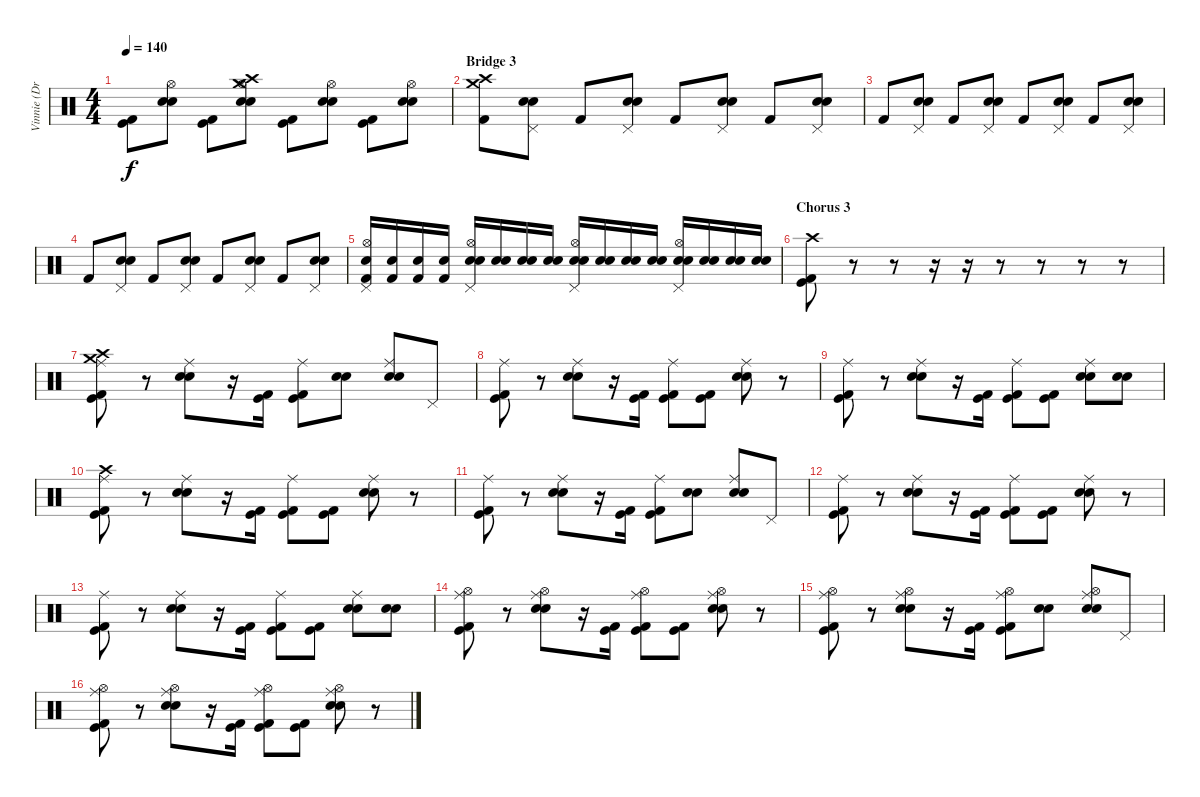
\track ("Vinnie (Drums)" "Vinnie (Dr") {instrument percussion}
\staff {score}
\articulation defaults
\ts (4 4)
\tempo 140
\clef neutral
\ks c
("Kick (hit) 2" "Kick (hit)").8{dy f} ("Snare (hit) 2" "Electric Snare (hit)" "Hi-Hat (open)").8 ("Kick (hit) 2" "Kick (hit)").8 ("Snare (hit) 2" "Electric Snare (hit)" "Hi-Hat (open)" "Crash medium (hit)" "Crash high (hit)").8 ("Kick (hit) 2" "Kick (hit)").8 ("Snare (hit) 2" "Electric Snare (hit)" "Hi-Hat (open)").8 ("Kick (hit) 2" "Kick (hit)").8 ("Snare (hit) 2" "Electric Snare (hit)" "Hi-Hat (open)").8 |
\section ("" "Bridge 3")
("Kick (hit) 2" "Crash medium (hit)" "Crash high (hit)").8 ("Snare (hit) 2" "Electric Snare (hit)" "Pedal Hi-Hat (hit)").8 "Kick (hit) 2".8 ("Snare (hit) 2" "Electric Snare (hit)" "Pedal Hi-Hat (hit)").8 "Kick (hit) 2".8 ("Snare (hit) 2" "Electric Snare (hit)" "Pedal Hi-Hat (hit)").8 "Kick (hit) 2".8 ("Snare (hit) 2" "Electric Snare (hit)" "Pedal Hi-Hat (hit)").8 |
"Kick (hit) 2".8 ("Snare (hit) 2" "Electric Snare (hit)" "Pedal Hi-Hat (hit)").8 "Kick (hit) 2".8 ("Snare (hit) 2" "Electric Snare (hit)" "Pedal Hi-Hat (hit)").8 "Kick (hit) 2".8 ("Snare (hit) 2" "Electric Snare (hit)" "Pedal Hi-Hat (hit)").8 "Kick (hit) 2".8 ("Snare (hit) 2" "Electric Snare (hit)" "Pedal Hi-Hat (hit)").8 |
"Kick (hit) 2".8 ("Snare (hit) 2" "Electric Snare (hit)" "Pedal Hi-Hat (hit)").8 "Kick (hit) 2".8 ("Snare (hit) 2" "Electric Snare (hit)" "Pedal Hi-Hat (hit)").8 "Kick (hit) 2".8 ("Snare (hit) 2" "Electric Snare (hit)" "Pedal Hi-Hat (hit)").8 "Kick (hit) 2".8 ("Snare (hit) 2" "Electric Snare (hit)" "Pedal Hi-Hat (hit)").8 |
("Kick (hit) 2" "Electric Snare (hit)" "Pedal Hi-Hat (hit)" "Hi-Hat (open)").16 ("Kick (hit) 2" "Electric Snare (hit)").16 ("Kick (hit) 2" "Electric Snare (hit)").16 ("Kick (hit) 2" "Electric Snare (hit)").16 ("Snare (hit) 2" "Electric Snare (hit)" "Pedal Hi-Hat (hit)" "Hi-Hat (open)").16 ("Snare (hit) 2" "Electric Snare (hit)").16 ("Snare (hit) 2" "Electric Snare (hit)").16 ("Snare (hit) 2" "Electric Snare (hit)").16 ("Snare (hit) 2" "Electric Snare (hit)" "Pedal Hi-Hat (hit)" "Hi-Hat (open)").16 ("Snare (hit) 2" "Electric Snare (hit)").16 ("Snare (hit) 2" "Electric Snare (hit)").16 ("Snare (hit) 2" "Electric Snare (hit)").16 ("Snare (hit) 2" "Electric Snare (hit)" "Pedal Hi-Hat (hit)" "Hi-Hat (open)").16 ("Snare (hit) 2" "Electric Snare (hit)").16 ("Snare (hit) 2" "Electric Snare (hit)").16 ("Snare (hit) 2" "Electric Snare (hit)").16 |
\section ("" "Chorus 3")
("Kick (hit) 2" "Kick (hit)" "Crash high (hit)").8 r.8 r.8 r.16 r.16 r.8 r.8 r.8 r.8 |
("Kick (hit) 2" "Kick (hit)" "Ride (middle)" "Crash medium (hit)" "Crash high (hit)").8 r.8 ("Snare (hit) 2" "Electric Snare (hit)" "Ride (middle)").8 r.16 ("Kick (hit) 2" "Kick (hit)").16 ("Kick (hit) 2" "Kick (hit)" "Ride (middle)").8 ("Snare (hit) 2" "Electric Snare (hit)").8 ("Snare (hit) 2" "Electric Snare (hit)" "Ride (middle)").8 "Pedal Hi-Hat (hit)".8 |
("Kick (hit) 2" "Kick (hit)" "Ride (middle)").8 r.8 ("Snare (hit) 2" "Electric Snare (hit)" "Ride (middle)").8 r.16 ("Kick (hit) 2" "Kick (hit)").16 ("Kick (hit) 2" "Kick (hit)" "Ride (middle)").8 ("Kick (hit) 2" "Kick (hit)").8 ("Snare (hit) 2" "Electric Snare (hit)" "Ride (middle)").8 r.8 |
("Kick (hit) 2" "Kick (hit)" "Ride (middle)").8 r.8 ("Snare (hit) 2" "Electric Snare (hit)" "Ride (middle)").8 r.16 ("Kick (hit) 2" "Kick (hit)").16 ("Kick (hit) 2" "Kick (hit)" "Ride (middle)").8 ("Kick (hit) 2" "Kick (hit)").8 ("Snare (hit) 2" "Electric Snare (hit)" "Ride (middle)").8 ("Snare (hit) 2" "Electric Snare (hit)").8 |
("Kick (hit) 2" "Kick (hit)" "Ride (middle)" "Crash high (hit)").8 r.8 ("Snare (hit) 2" "Electric Snare (hit)" "Ride (middle)").8 r.16 ("Kick (hit) 2" "Kick (hit)").16 ("Kick (hit) 2" "Kick (hit)" "Ride (middle)").8 ("Kick (hit) 2" "Kick (hit)").8 ("Snare (hit) 2" "Electric Snare (hit)" "Ride (middle)").8 r.8 |
("Kick (hit) 2" "Kick (hit)" "Ride (middle)").8 r.8 ("Snare (hit) 2" "Electric Snare (hit)" "Ride (middle)").8 r.16 ("Kick (hit) 2" "Kick (hit)").16 ("Kick (hit) 2" "Kick (hit)" "Ride (middle)").8 ("Snare (hit) 2" "Electric Snare (hit)").8 ("Snare (hit) 2" "Electric Snare (hit)" "Ride (middle)").8 "Pedal Hi-Hat (hit)".8 |
("Kick (hit) 2" "Kick (hit)" "Ride (middle)").8 r.8 ("Snare (hit) 2" "Electric Snare (hit)" "Ride (middle)").8 r.16 ("Kick (hit) 2" "Kick (hit)").16 ("Kick (hit) 2" "Kick (hit)" "Ride (middle)").8 ("Kick (hit) 2" "Kick (hit)").8 ("Snare (hit) 2" "Electric Snare (hit)" "Ride (middle)").8 r.8 |
("Kick (hit) 2" "Kick (hit)" "Ride (middle)").8 r.8 ("Snare (hit) 2" "Electric Snare (hit)" "Ride (middle)").8 r.16 ("Kick (hit) 2" "Kick (hit)").16 ("Kick (hit) 2" "Kick (hit)" "Ride (middle)").8 ("Kick (hit) 2" "Kick (hit)").8 ("Snare (hit) 2" "Electric Snare (hit)" "Ride (middle)").8 ("Snare (hit) 2" "Electric Snare (hit)").8 |
("Kick (hit) 2" "Kick (hit)" "Ride (middle)" "Hi-Hat (open)").8 r.8 ("Snare (hit) 2" "Electric Snare (hit)" "Ride (middle)" "Hi-Hat (open)").8 r.16 ("Kick (hit) 2" "Kick (hit)").16 ("Kick (hit) 2" "Kick (hit)" "Ride (middle)" "Hi-Hat (open)").8 ("Kick (hit) 2" "Kick (hit)").8 ("Snare (hit) 2" "Electric Snare (hit)" "Ride (middle)" "Hi-Hat (open)").8 r.8 |
("Kick (hit) 2" "Kick (hit)" "Ride (middle)" "Hi-Hat (open)").8 r.8 ("Snare (hit) 2" "Electric Snare (hit)" "Ride (middle)" "Hi-Hat (open)").8 r.16 ("Kick (hit) 2" "Kick (hit)").16 ("Kick (hit) 2" "Kick (hit)" "Ride (middle)" "Hi-Hat (open)").8 ("Snare (hit) 2" "Electric Snare (hit)").8 ("Snare (hit) 2" "Electric Snare (hit)" "Ride (middle)" "Hi-Hat (open)").8 "Pedal Hi-Hat (hit)".8 |
("Kick (hit) 2" "Kick (hit)" "Ride (middle)" "Hi-Hat (open)").8 r.8 ("Snare (hit) 2" "Electric Snare (hit)" "Ride (middle)" "Hi-Hat (open)").8 r.16 ("Kick (hit) 2" "Kick (hit)").16 ("Kick (hit) 2" "Kick (hit)" "Ride (middle)" "Hi-Hat (open)").8 ("Kick (hit) 2" "Kick (hit)").8 ("Snare (hit) 2" "Electric Snare (hit)" "Ride (middle)" "Hi-Hat (open)").8 r.8
